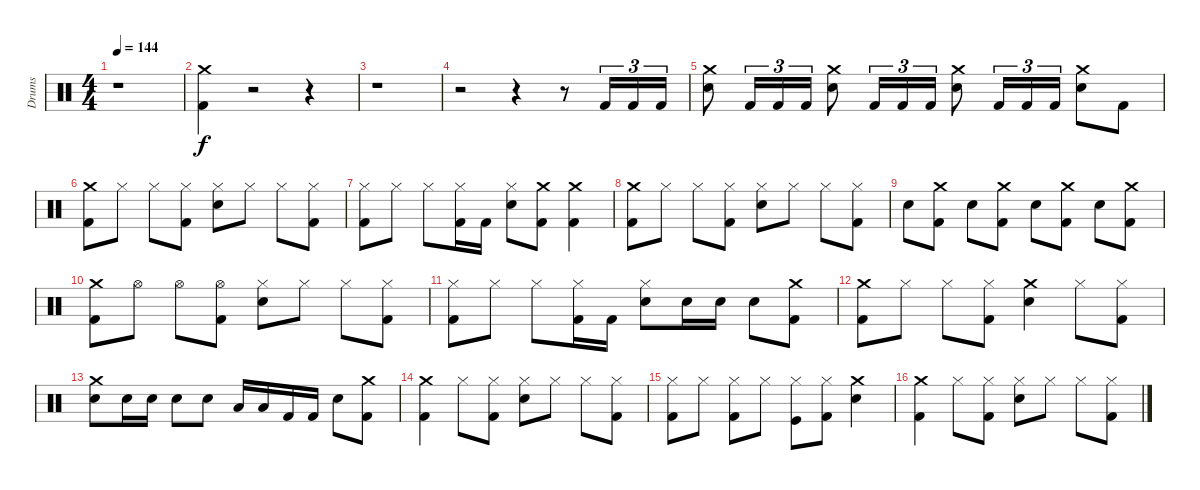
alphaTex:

\track ("Drums" "Drums") {instrument percussion}
\staff {score}
\articulation defaults
\ts (4 4)
\tempo 144
\clef neutral
\ks c
r.1{dy f} |
("Kick (hit) 2" "Crash medium (hit)").4 r.2 r.4 |
r.1 |
r.2 r.4 r.8 "Kick (hit) 2".16{tu (3 2)} "Kick (hit) 2".16{tu (3 2)} "Kick (hit) 2".16{tu (3 2)} |
("Snare (hit) 2" "Crash medium (hit)").8 "Kick (hit) 2".16{tu (3 2)} "Kick (hit) 2".16{tu (3 2)} "Kick (hit) 2".16{tu (3 2)} ("Snare (hit) 2" "Crash medium (hit)").8 "Kick (hit) 2".16{tu (3 2)} "Kick (hit) 2".16{tu (3 2)} "Kick (hit) 2".16{tu (3 2)} ("Snare (hit) 2" "Crash medium (hit)").8 "Kick (hit) 2".16{tu (3 2)} "Kick (hit) 2".16{tu (3 2)} "Kick (hit) 2".16{tu (3 2)} ("Snare (hit) 2" "Crash medium (hit)").8 "Kick (hit) 2".8 |
("Kick (hit) 2" "Crash medium (hit)").8 "Hi-Hat (closed)".8 "Hi-Hat (closed)".8 ("Kick (hit) 2" "Hi-Hat (closed)").8 ("Snare (hit) 2" "Hi-Hat (closed)").8 "Hi-Hat (closed)".8 "Hi-Hat (closed)".8 ("Kick (hit) 2" "Hi-Hat (closed)").8 |
("Hi-Hat (closed)" "Kick (hit) 2").8 "Hi-Hat (closed)".8 "Hi-Hat (closed)".8 ("Hi-Hat (closed)" "Kick (hit) 2").16 "Kick (hit) 2".16 ("Snare (hit) 2" "Hi-Hat (closed)").8 ("Kick (hit) 2" "Crash medium (hit)").8 ("Kick (hit) 2" "Crash medium (hit)").4 |
("Crash medium (hit)" "Kick (hit) 2").8 "Hi-Hat (closed)".8 "Hi-Hat (closed)".8 ("Kick (hit) 2" "Hi-Hat (closed)").8 ("Snare (hit) 2" "Hi-Hat (closed)").8 "Hi-Hat (closed)".8 "Hi-Hat (closed)".8 ("Kick (hit) 2" "Hi-Hat (closed)").8 |
"Snare (hit) 2".8 ("Kick (hit) 2" "Crash medium (hit)").8 "Snare (hit) 2".8 ("Kick (hit) 2" "Crash medium (hit)").8 "Snare (hit) 2".8 ("Kick (hit) 2" "Crash medium (hit)").8 "Snare (hit) 2".8 ("Kick (hit) 2" "Crash medium (hit)").8 |
("Kick (hit) 2" "Crash medium (hit)").8 "Hi-Hat (open)".8 "Hi-Hat (open)".8 ("Kick (hit) 2" "Hi-Hat (open)").8 ("Snare (hit) 2" "Hi-Hat (closed)").8 "Hi-Hat (closed)".8 "Hi-Hat (closed)".8 ("Kick (hit) 2" "Hi-Hat (closed)").8 |
("Hi-Hat (closed)" "Kick (hit) 2").8 "Hi-Hat (closed)".8 "Hi-Hat (closed)".8 ("Kick (hit) 2" "Hi-Hat (closed)").16 "Kick (hit) 2".16 ("Snare (hit) 2" "Hi-Hat (closed)").8 "Snare (hit) 2".16 "Snare (hit) 2".16 "Snare (hit) 2".8 ("Kick (hit) 2" "Crash medium (hit)").8 |
("Crash medium (hit)" "Kick (hit) 2").8 "Hi-Hat (closed)".8 "Hi-Hat (closed)".8 ("Kick (hit) 2" "Hi-Hat (closed)").8 ("Snare (hit) 2" "Crash medium (hit)").4 "Hi-Hat (closed)".8 ("Kick (hit) 2" "Hi-Hat (closed)").8 |
("Snare (hit) 2" "Crash medium (hit)").8 "Snare (hit) 2".16 "Snare (hit) 2".16 "Snare (hit) 2".8 "Snare (hit) 2".8 "Low Tom (hit)".16 "Low Tom (hit)".16 "Kick (hit) 2".16 "Kick (hit) 2".16 "Snare (hit) 2".8 ("Kick (hit) 2" "Crash medium (hit)").8 |
("Kick (hit) 2" "Crash medium (hit)").4 "Hi-Hat (closed)".8 ("Kick (hit) 2" "Hi-Hat (closed)").8 ("Snare (hit) 2" "Hi-Hat (closed)").8 "Hi-Hat (closed)".8 "Hi-Hat (closed)".8 ("Kick (hit) 2" "Hi-Hat (closed)").8 |
("Hi-Hat (closed)" "Kick (hit) 2").8 "Hi-Hat (closed)".8 ("Hi-Hat (closed)" "Kick (hit) 2").8 "Hi-Hat (closed)".8 ("Kick (hit)" "Hi-Hat (closed)").8 ("Kick (hit) 2" "Hi-Hat (closed)").8 ("Crash medium (hit)" "Snare (hit) 2").4 |
("Kick (hit) 2" "Crash medium (hit)").4 "Hi-Hat (closed)".8 ("Kick (hit) 2" "Hi-Hat (closed)").8 ("Snare (hit) 2" "Hi-Hat (closed)").8 "Hi-Hat (closed)".8 "Hi-Hat (closed)".8 ("Kick (hit) 2" "Hi-Hat (closed)").8
